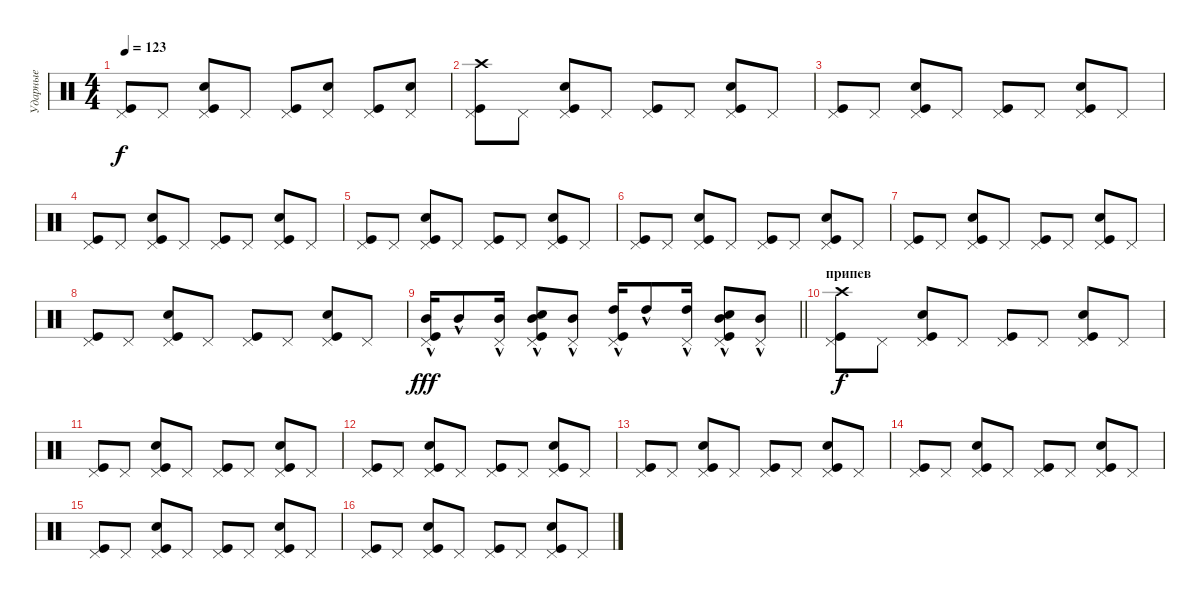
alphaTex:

\track ("Ударные" "Ударные") {instrument percussion}
\staff {score}
\articulation defaults
\ts (4 4)
\tempo 123
\clef neutral
\ks c
("Pedal Hi-Hat (hit)" "Kick (hit)").8{dy f} "Pedal Hi-Hat (hit)".8 ("Pedal Hi-Hat (hit)" "Kick (hit)" "Snare (hit) 2").8 "Pedal Hi-Hat (hit)".8 ("Pedal Hi-Hat (hit)" "Kick (hit)").8 ("Pedal Hi-Hat (hit)" "Snare (hit) 2").8 ("Pedal Hi-Hat (hit)" "Kick (hit)").8 ("Pedal Hi-Hat (hit)" "Snare (hit) 2").8 |
("Pedal Hi-Hat (hit)" "Kick (hit)" "Crash high (hit)").8 "Pedal Hi-Hat (hit)".8 ("Pedal Hi-Hat (hit)" "Kick (hit)" "Snare (hit) 2").8 "Pedal Hi-Hat (hit)".8 ("Pedal Hi-Hat (hit)" "Kick (hit)").8 "Pedal Hi-Hat (hit)".8 ("Pedal Hi-Hat (hit)" "Kick (hit)" "Snare (hit) 2").8 "Pedal Hi-Hat (hit)".8 |
("Pedal Hi-Hat (hit)" "Kick (hit)").8 "Pedal Hi-Hat (hit)".8 ("Pedal Hi-Hat (hit)" "Kick (hit)" "Snare (hit) 2").8 "Pedal Hi-Hat (hit)".8 ("Pedal Hi-Hat (hit)" "Kick (hit)").8 "Pedal Hi-Hat (hit)".8 ("Pedal Hi-Hat (hit)" "Kick (hit)" "Snare (hit) 2").8 "Pedal Hi-Hat (hit)".8 |
("Pedal Hi-Hat (hit)" "Kick (hit)").8 "Pedal Hi-Hat (hit)".8 ("Pedal Hi-Hat (hit)" "Kick (hit)" "Snare (hit) 2").8 "Pedal Hi-Hat (hit)".8 ("Pedal Hi-Hat (hit)" "Kick (hit)").8 "Pedal Hi-Hat (hit)".8 ("Pedal Hi-Hat (hit)" "Kick (hit)" "Snare (hit) 2").8 "Pedal Hi-Hat (hit)".8 |
("Pedal Hi-Hat (hit)" "Kick (hit)").8 "Pedal Hi-Hat (hit)".8 ("Pedal Hi-Hat (hit)" "Kick (hit)" "Snare (hit) 2").8 "Pedal Hi-Hat (hit)".8 ("Pedal Hi-Hat (hit)" "Kick (hit)").8 "Pedal Hi-Hat (hit)".8 ("Pedal Hi-Hat (hit)" "Kick (hit)" "Snare (hit) 2").8 "Pedal Hi-Hat (hit)".8 |
("Pedal Hi-Hat (hit)" "Kick (hit)").8 "Pedal Hi-Hat (hit)".8 ("Pedal Hi-Hat (hit)" "Kick (hit)" "Snare (hit) 2").8 "Pedal Hi-Hat (hit)".8 ("Pedal Hi-Hat (hit)" "Kick (hit)").8 "Pedal Hi-Hat (hit)".8 ("Pedal Hi-Hat (hit)" "Kick (hit)" "Snare (hit) 2").8 "Pedal Hi-Hat (hit)".8 |
("Pedal Hi-Hat (hit)" "Kick (hit)").8 "Pedal Hi-Hat (hit)".8 ("Pedal Hi-Hat (hit)" "Kick (hit)" "Snare (hit) 2").8 "Pedal Hi-Hat (hit)".8 ("Pedal Hi-Hat (hit)" "Kick (hit)").8 "Pedal Hi-Hat (hit)".8 ("Pedal Hi-Hat (hit)" "Kick (hit)" "Snare (hit) 2").8 "Pedal Hi-Hat (hit)".8 |
("Pedal Hi-Hat (hit)" "Kick (hit)").8 "Pedal Hi-Hat (hit)".8 ("Pedal Hi-Hat (hit)" "Kick (hit)" "Snare (hit) 2").8 "Pedal Hi-Hat (hit)".8 ("Pedal Hi-Hat (hit)" "Kick (hit)").8 "Pedal Hi-Hat (hit)".8 ("Pedal Hi-Hat (hit)" "Kick (hit)" "Snare (hit) 2").8 "Pedal Hi-Hat (hit)".8 |
\barLineRight lightlight
("Mid Tom (hit)"{hac} "Kick (hit)" "Pedal Hi-Hat (hit)").16{dy fff} "Mid Tom (hit)"{hac}.8 ("Mid Tom (hit)"{hac} "Pedal Hi-Hat (hit)").16 ("Mid Tom (hit)"{hac} "Kick (hit)" "Pedal Hi-Hat (hit)" "Snare (hit) 2").8 ("Mid Tom (hit)"{hac} "Pedal Hi-Hat (hit)").8 ("High Tom (hit)"{hac} "Kick (hit)" "Pedal Hi-Hat (hit)").16 "High Tom (hit)"{hac}.8 ("High Tom (hit)"{hac} "Pedal Hi-Hat (hit)").16 ("Mid Tom (hit)"{hac} "Kick (hit)" "Pedal Hi-Hat (hit)" "Snare (hit) 2").8 ("Mid Tom (hit)"{hac} "Pedal Hi-Hat (hit)").8 |
\section ("" "припев")
("Pedal Hi-Hat (hit)" "Kick (hit)" "Crash high (hit)").8{dy f} "Pedal Hi-Hat (hit)".8 ("Pedal Hi-Hat (hit)" "Kick (hit)" "Snare (hit) 2").8 "Pedal Hi-Hat (hit)".8 ("Pedal Hi-Hat (hit)" "Kick (hit)").8 "Pedal Hi-Hat (hit)".8 ("Pedal Hi-Hat (hit)" "Kick (hit)" "Snare (hit) 2").8 "Pedal Hi-Hat (hit)".8 |
("Pedal Hi-Hat (hit)" "Kick (hit)").8 "Pedal Hi-Hat (hit)".8 ("Pedal Hi-Hat (hit)" "Kick (hit)" "Snare (hit) 2").8 "Pedal Hi-Hat (hit)".8 ("Pedal Hi-Hat (hit)" "Kick (hit)").8 "Pedal Hi-Hat (hit)".8 ("Pedal Hi-Hat (hit)" "Kick (hit)" "Snare (hit) 2").8 "Pedal Hi-Hat (hit)".8 |
("Pedal Hi-Hat (hit)" "Kick (hit)").8 "Pedal Hi-Hat (hit)".8 ("Pedal Hi-Hat (hit)" "Kick (hit)" "Snare (hit) 2").8 "Pedal Hi-Hat (hit)".8 ("Pedal Hi-Hat (hit)" "Kick (hit)").8 "Pedal Hi-Hat (hit)".8 ("Pedal Hi-Hat (hit)" "Kick (hit)" "Snare (hit) 2").8 "Pedal Hi-Hat (hit)".8 |
("Pedal Hi-Hat (hit)" "Kick (hit)").8 "Pedal Hi-Hat (hit)".8 ("Pedal Hi-Hat (hit)" "Kick (hit)" "Snare (hit) 2").8 "Pedal Hi-Hat (hit)".8 ("Pedal Hi-Hat (hit)" "Kick (hit)").8 "Pedal Hi-Hat (hit)".8 ("Pedal Hi-Hat (hit)" "Kick (hit)" "Snare (hit) 2").8 "Pedal Hi-Hat (hit)".8 |
("Pedal Hi-Hat (hit)" "Kick (hit)").8 "Pedal Hi-Hat (hit)".8 ("Pedal Hi-Hat (hit)" "Kick (hit)" "Snare (hit) 2").8 "Pedal Hi-Hat (hit)".8 ("Pedal Hi-Hat (hit)" "Kick (hit)").8 "Pedal Hi-Hat (hit)".8 ("Pedal Hi-Hat (hit)" "Kick (hit)" "Snare (hit) 2").8 "Pedal Hi-Hat (hit)".8 |
("Pedal Hi-Hat (hit)" "Kick (hit)").8 "Pedal Hi-Hat (hit)".8 ("Pedal Hi-Hat (hit)" "Kick (hit)" "Snare (hit) 2").8 "Pedal Hi-Hat (hit)".8 ("Pedal Hi-Hat (hit)" "Kick (hit)").8 "Pedal Hi-Hat (hit)".8 ("Pedal Hi-Hat (hit)" "Kick (hit)" "Snare (hit) 2").8 "Pedal Hi-Hat (hit)".8 |
("Pedal Hi-Hat (hit)" "Kick (hit)").8 "Pedal Hi-Hat (hit)".8 ("Pedal Hi-Hat (hit)" "Kick (hit)" "Snare (hit) 2").8 "Pedal Hi-Hat (hit)".8 ("Pedal Hi-Hat (hit)" "Kick (hit)").8 "Pedal Hi-Hat (hit)".8 ("Pedal Hi-Hat (hit)" "Kick (hit)" "Snare (hit) 2").8 "Pedal Hi-Hat (hit)".8
